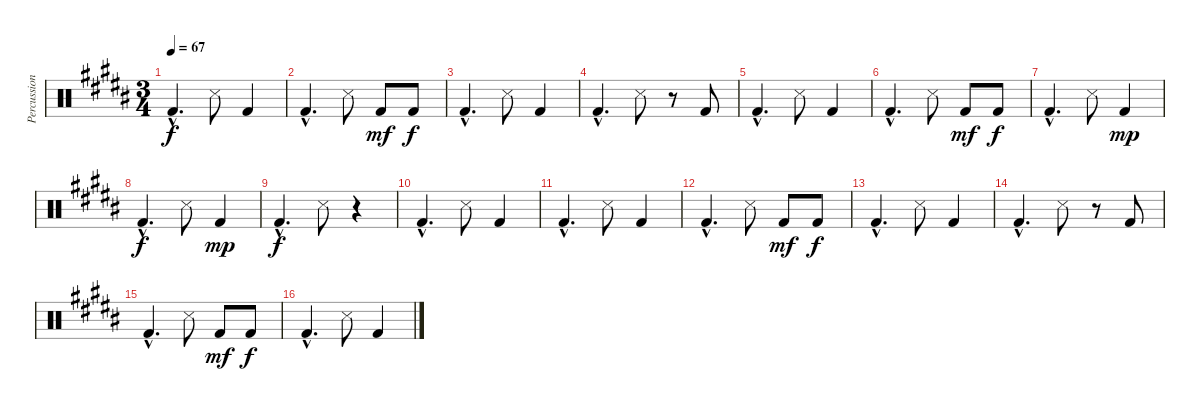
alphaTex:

\track ("Percussion" "Percussion") {instrument percussion}
\staff {score}
\articulation defaults
\ts (3 4)
\tempo 67
\clef neutral
\ks b "Kick (hit) 2"{hac}.4{d dy f} "Snare (side stick) 3".8 "Kick (hit) 2".4
|
"Kick (hit) 2"{hac}.4{d} "Snare (side stick) 3".8 "Kick (hit) 2".8{dy mf} "Kick (hit) 2".8{dy f} |
"Kick (hit) 2"{hac}.4{d} "Snare (side stick) 3".8 "Kick (hit) 2".4 |
"Kick (hit) 2"{hac}.4{d} "Snare (side stick) 3".8 r.8 "Kick (hit) 2".8 |
"Kick (hit) 2"{hac}.4{d} "Snare (side stick) 3".8 "Kick (hit) 2".4 |
"Kick (hit) 2"{hac}.4{d} "Snare (side stick) 3".8 "Kick (hit) 2".8{dy mf} "Kick (hit) 2".8{dy f} |
"Kick (hit) 2"{hac}.4{d} "Snare (side stick) 3".8 "Kick (hit) 2".4{dy mp} |
"Kick (hit) 2"{hac}.4{d dy f} "Snare (side stick) 3".8 "Kick (hit) 2".4{dy mp} |
"Kick (hit) 2"{hac}.4{d dy f} "Snare (side stick) 3".8 r.4 |
"Kick (hit) 2"{hac}.4{d} "Snare (side stick) 3".8 "Kick (hit) 2".4 |
"Kick (hit) 2"{hac}.4{d} "Snare (side stick) 3".8 "Kick (hit) 2".4 |
"Kick (hit) 2"{hac}.4{d} "Snare (side stick) 3".8 "Kick (hit) 2".8{dy mf} "Kick (hit) 2".8{dy f} |
"Kick (hit) 2"{hac}.4{d} "Snare (side stick) 3".8 "Kick (hit) 2".4 |
"Kick (hit) 2"{hac}.4{d} "Snare (side stick) 3".8 r.8 "Kick (hit) 2".8 |
"Kick (hit) 2"{hac}.4{d} "Snare (side stick) 3".8 "Kick (hit) 2".8{dy mf} "Kick (hit) 2".8{dy f} |
"Kick (hit) 2"{hac}.4{d} "Snare (side stick) 3".8 "Kick (hit) 2".4
